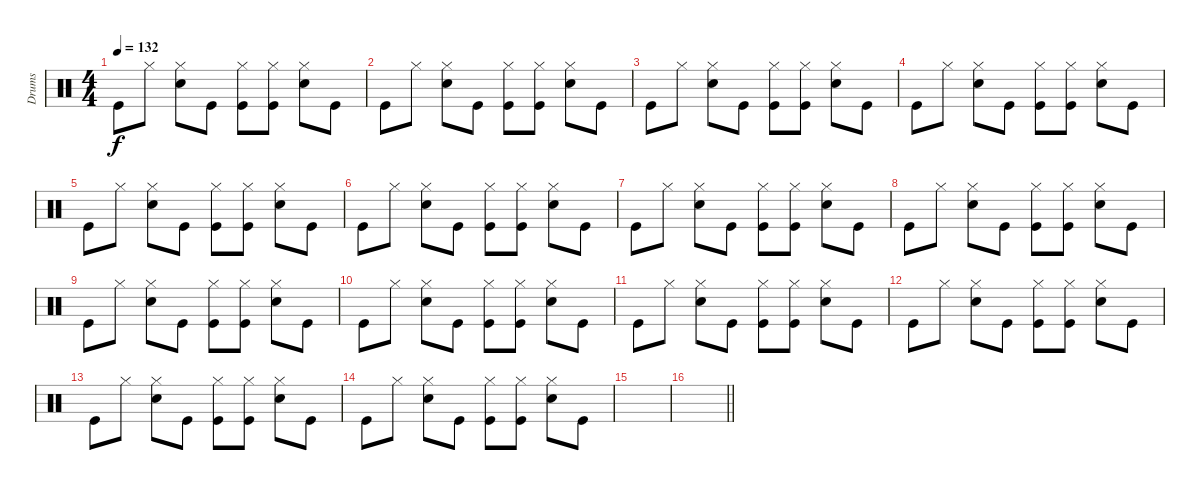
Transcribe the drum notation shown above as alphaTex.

\track ("Drums" "Drums") {instrument percussion}
\staff {score}
\articulation defaults
\ts (4 4)
\tempo 132
\clef neutral
\ks c "Kick (hit)".8{dy f} "Hi-Hat (closed)".8
("Hi-Hat (closed)" "Snare (hit) 2").8 "Kick (hit)".8 ("Hi-Hat (closed)" "Kick (hit)").8 ("Hi-Hat (closed)" "Kick (hit)").8 ("Hi-Hat (closed)" "Snare (hit) 2").8 "Kick (hit)".8 |
"Kick (hit)".8 "Hi-Hat (closed)".8 ("Hi-Hat (closed)" "Snare (hit) 2").8 "Kick (hit)".8 ("Hi-Hat (closed)" "Kick (hit)").8 ("Hi-Hat (closed)" "Kick (hit)").8 ("Hi-Hat (closed)" "Snare (hit) 2").8 "Kick (hit)".8 |
"Kick (hit)".8 "Hi-Hat (closed)".8 ("Hi-Hat (closed)" "Snare (hit) 2").8 "Kick (hit)".8 ("Hi-Hat (closed)" "Kick (hit)").8 ("Hi-Hat (closed)" "Kick (hit)").8 ("Hi-Hat (closed)" "Snare (hit) 2").8 "Kick (hit)".8 |
"Kick (hit)".8 "Hi-Hat (closed)".8 ("Hi-Hat (closed)" "Snare (hit) 2").8 "Kick (hit)".8 ("Hi-Hat (closed)" "Kick (hit)").8 ("Hi-Hat (closed)" "Kick (hit)").8 ("Hi-Hat (closed)" "Snare (hit) 2").8 "Kick (hit)".8 |
"Kick (hit)".8 "Hi-Hat (closed)".8 ("Hi-Hat (closed)" "Snare (hit) 2").8 "Kick (hit)".8 ("Hi-Hat (closed)" "Kick (hit)").8 ("Hi-Hat (closed)" "Kick (hit)").8 ("Hi-Hat (closed)" "Snare (hit) 2").8 "Kick (hit)".8 |
"Kick (hit)".8 "Hi-Hat (closed)".8 ("Hi-Hat (closed)" "Snare (hit) 2").8 "Kick (hit)".8 ("Hi-Hat (closed)" "Kick (hit)").8 ("Hi-Hat (closed)" "Kick (hit)").8 ("Hi-Hat (closed)" "Snare (hit) 2").8 "Kick (hit)".8 |
"Kick (hit)".8 "Hi-Hat (closed)".8 ("Hi-Hat (closed)" "Snare (hit) 2").8 "Kick (hit)".8 ("Hi-Hat (closed)" "Kick (hit)").8 ("Hi-Hat (closed)" "Kick (hit)").8 ("Hi-Hat (closed)" "Snare (hit) 2").8 "Kick (hit)".8 |
"Kick (hit)".8 "Hi-Hat (closed)".8 ("Hi-Hat (closed)" "Snare (hit) 2").8 "Kick (hit)".8 ("Hi-Hat (closed)" "Kick (hit)").8 ("Hi-Hat (closed)" "Kick (hit)").8 ("Hi-Hat (closed)" "Snare (hit) 2").8 "Kick (hit)".8 |
"Kick (hit)".8 "Hi-Hat (closed)".8 ("Hi-Hat (closed)" "Snare (hit) 2").8 "Kick (hit)".8 ("Hi-Hat (closed)" "Kick (hit)").8 ("Hi-Hat (closed)" "Kick (hit)").8 ("Hi-Hat (closed)" "Snare (hit) 2").8 "Kick (hit)".8 |
"Kick (hit)".8 "Hi-Hat (closed)".8 ("Hi-Hat (closed)" "Snare (hit) 2").8 "Kick (hit)".8 ("Hi-Hat (closed)" "Kick (hit)").8 ("Hi-Hat (closed)" "Kick (hit)").8 ("Hi-Hat (closed)" "Snare (hit) 2").8 "Kick (hit)".8 |
"Kick (hit)".8 "Hi-Hat (closed)".8 ("Hi-Hat (closed)" "Snare (hit) 2").8 "Kick (hit)".8 ("Hi-Hat (closed)" "Kick (hit)").8 ("Hi-Hat (closed)" "Kick (hit)").8 ("Hi-Hat (closed)" "Snare (hit) 2").8 "Kick (hit)".8 |
"Kick (hit)".8 "Hi-Hat (closed)".8 ("Hi-Hat (closed)" "Snare (hit) 2").8 "Kick (hit)".8 ("Hi-Hat (closed)" "Kick (hit)").8 ("Hi-Hat (closed)" "Kick (hit)").8 ("Hi-Hat (closed)" "Snare (hit) 2").8 "Kick (hit)".8 |
"Kick (hit)".8 "Hi-Hat (closed)".8 ("Hi-Hat (closed)" "Snare (hit) 2").8 "Kick (hit)".8 ("Hi-Hat (closed)" "Kick (hit)").8 ("Hi-Hat (closed)" "Kick (hit)").8 ("Hi-Hat (closed)" "Snare (hit) 2").8 "Kick (hit)".8 |
"Kick (hit)".8 "Hi-Hat (closed)".8 ("Hi-Hat (closed)" "Snare (hit) 2").8 "Kick (hit)".8 ("Hi-Hat (closed)" "Kick (hit)").8 ("Hi-Hat (closed)" "Kick (hit)").8 ("Hi-Hat (closed)" "Snare (hit) 2").8 "Kick (hit)".8 |
|
\barLineRight lightlight
